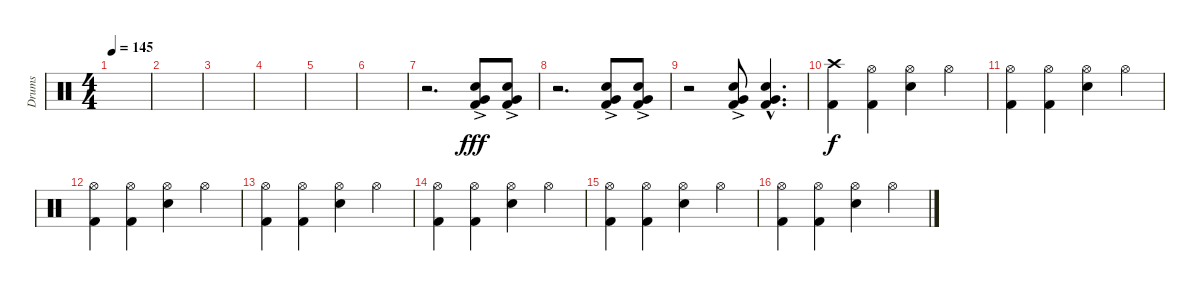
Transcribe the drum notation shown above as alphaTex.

\track ("Drums" "Drums") {instrument percussion}
\staff {score}
\articulation defaults
\ts (4 4)
\tempo 145
\clef neutral
\ks c
|
|
|
|
|
|
r.2{d} ("Very Low Tom (hit)"{ac} "Electric Snare (hit)"{ac} "Kick (hit) 2"{ac}).8{dy fff} ("Very Low Tom (hit)"{ac} "Electric Snare (hit)"{ac} "Kick (hit) 2"{ac}).8 |
r.2{d} ("Very Low Tom (hit)"{ac} "Electric Snare (hit)"{ac} "Kick (hit) 2"{ac}).8 ("Very Low Tom (hit)"{ac} "Electric Snare (hit)"{ac} "Kick (hit) 2"{ac}).8 |
r.2 ("Very Low Tom (hit)"{ac} "Electric Snare (hit)"{ac} "Kick (hit) 2"{ac}).8 ("Very Low Tom (hit)"{hac} "Electric Snare (hit)"{hac} "Kick (hit) 2"{hac}).4{d} |
("Crash high (hit)" "Kick (hit) 2").4{dy f volume 14} ("Kick (hit) 2" "Hi-Hat (open)").4 ("Snare (hit) 2" "Hi-Hat (open)").4 "Hi-Hat (open)".4 |
("Kick (hit) 2" "Hi-Hat (open)").4 ("Kick (hit) 2" "Hi-Hat (open)").4 ("Snare (hit) 2" "Hi-Hat (open)").4 "Hi-Hat (open)".4 |
("Kick (hit) 2" "Hi-Hat (open)").4 ("Kick (hit) 2" "Hi-Hat (open)").4 ("Snare (hit) 2" "Hi-Hat (open)").4 "Hi-Hat (open)".4 |
("Kick (hit) 2" "Hi-Hat (open)").4 ("Kick (hit) 2" "Hi-Hat (open)").4 ("Snare (hit) 2" "Hi-Hat (open)").4 "Hi-Hat (open)".4 |
("Kick (hit) 2" "Hi-Hat (open)").4 ("Kick (hit) 2" "Hi-Hat (open)").4 ("Snare (hit) 2" "Hi-Hat (open)").4 "Hi-Hat (open)".4 |
("Kick (hit) 2" "Hi-Hat (open)").4 ("Kick (hit) 2" "Hi-Hat (open)").4 ("Snare (hit) 2" "Hi-Hat (open)").4 "Hi-Hat (open)".4 |
("Kick (hit) 2" "Hi-Hat (open)").4 ("Kick (hit) 2" "Hi-Hat (open)").4 ("Snare (hit) 2" "Hi-Hat (open)").4 "Hi-Hat (open)".4
